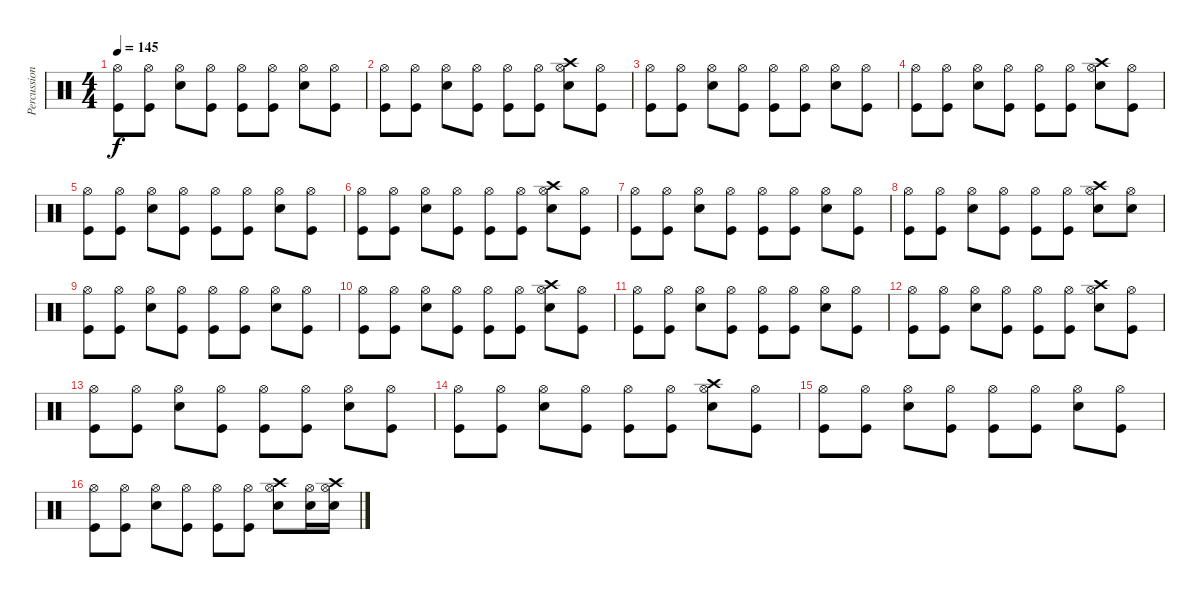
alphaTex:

\track ("Percussion" "Percussion") {instrument percussion}
\staff {score}
\articulation defaults
\ts (4 4)
\tempo 145
\clef neutral
\ks c
("Hi-Hat (open)" "Kick (hit)").8{dy f} ("Hi-Hat (open)" "Kick (hit)").8 ("Hi-Hat (open)" "Snare (hit) 2").8 ("Hi-Hat (open)" "Kick (hit)").8 ("Hi-Hat (open)" "Kick (hit)").8 ("Hi-Hat (open)" "Kick (hit)").8 ("Hi-Hat (open)" "Snare (hit) 2").8 ("Hi-Hat (open)" "Kick (hit)").8 |
("Hi-Hat (open)" "Kick (hit)").8 ("Hi-Hat (open)" "Kick (hit)").8 ("Hi-Hat (open)" "Snare (hit) 2").8 ("Hi-Hat (open)" "Kick (hit)").8 ("Hi-Hat (open)" "Kick (hit)").8 ("Hi-Hat (open)" "Kick (hit)").8 ("Hi-Hat (open)" "Snare (hit) 2" "Crash high (hit)").8 ("Hi-Hat (open)" "Kick (hit)").8 |
("Hi-Hat (open)" "Kick (hit)").8 ("Hi-Hat (open)" "Kick (hit)").8 ("Hi-Hat (open)" "Snare (hit) 2").8 ("Hi-Hat (open)" "Kick (hit)").8 ("Hi-Hat (open)" "Kick (hit)").8 ("Hi-Hat (open)" "Kick (hit)").8 ("Hi-Hat (open)" "Snare (hit) 2").8 ("Hi-Hat (open)" "Kick (hit)").8 |
("Hi-Hat (open)" "Kick (hit)").8 ("Hi-Hat (open)" "Kick (hit)").8 ("Hi-Hat (open)" "Snare (hit) 2").8 ("Hi-Hat (open)" "Kick (hit)").8 ("Hi-Hat (open)" "Kick (hit)").8 ("Hi-Hat (open)" "Kick (hit)").8 ("Hi-Hat (open)" "Snare (hit) 2" "Crash high (hit)").8 ("Hi-Hat (open)" "Kick (hit)").8 |
("Hi-Hat (open)" "Kick (hit)").8 ("Hi-Hat (open)" "Kick (hit)").8 ("Hi-Hat (open)" "Snare (hit) 2").8 ("Hi-Hat (open)" "Kick (hit)").8 ("Hi-Hat (open)" "Kick (hit)").8 ("Hi-Hat (open)" "Kick (hit)").8 ("Hi-Hat (open)" "Snare (hit) 2").8 ("Hi-Hat (open)" "Kick (hit)").8 |
("Hi-Hat (open)" "Kick (hit)").8 ("Hi-Hat (open)" "Kick (hit)").8 ("Hi-Hat (open)" "Snare (hit) 2").8 ("Hi-Hat (open)" "Kick (hit)").8 ("Hi-Hat (open)" "Kick (hit)").8 ("Hi-Hat (open)" "Kick (hit)").8 ("Hi-Hat (open)" "Snare (hit) 2" "Crash high (hit)").8 ("Hi-Hat (open)" "Kick (hit)").8 |
("Hi-Hat (open)" "Kick (hit)").8 ("Hi-Hat (open)" "Kick (hit)").8 ("Hi-Hat (open)" "Snare (hit) 2").8 ("Hi-Hat (open)" "Kick (hit)").8 ("Hi-Hat (open)" "Kick (hit)").8 ("Hi-Hat (open)" "Kick (hit)").8 ("Hi-Hat (open)" "Snare (hit) 2").8 ("Hi-Hat (open)" "Kick (hit)").8 |
("Hi-Hat (open)" "Kick (hit)").8 ("Hi-Hat (open)" "Kick (hit)").8 ("Hi-Hat (open)" "Snare (hit) 2").8 ("Hi-Hat (open)" "Kick (hit)").8 ("Hi-Hat (open)" "Kick (hit)").8 ("Hi-Hat (open)" "Kick (hit)").8 ("Hi-Hat (open)" "Snare (hit) 2" "Crash high (hit)").8 ("Hi-Hat (open)" "Snare (hit)").8 |
("Hi-Hat (open)" "Kick (hit)").8 ("Hi-Hat (open)" "Kick (hit)").8 ("Hi-Hat (open)" "Snare (hit) 2").8 ("Hi-Hat (open)" "Kick (hit)").8 ("Hi-Hat (open)" "Kick (hit)").8 ("Hi-Hat (open)" "Kick (hit)").8 ("Hi-Hat (open)" "Snare (hit) 2").8 ("Hi-Hat (open)" "Kick (hit)").8 |
("Hi-Hat (open)" "Kick (hit)").8 ("Hi-Hat (open)" "Kick (hit)").8 ("Hi-Hat (open)" "Snare (hit) 2").8 ("Hi-Hat (open)" "Kick (hit)").8 ("Hi-Hat (open)" "Kick (hit)").8 ("Hi-Hat (open)" "Kick (hit)").8 ("Hi-Hat (open)" "Snare (hit) 2" "Crash high (hit)").8 ("Hi-Hat (open)" "Kick (hit)").8 |
("Hi-Hat (open)" "Kick (hit)").8 ("Hi-Hat (open)" "Kick (hit)").8 ("Hi-Hat (open)" "Snare (hit) 2").8 ("Hi-Hat (open)" "Kick (hit)").8 ("Hi-Hat (open)" "Kick (hit)").8 ("Hi-Hat (open)" "Kick (hit)").8 ("Hi-Hat (open)" "Snare (hit) 2").8 ("Hi-Hat (open)" "Kick (hit)").8 |
("Hi-Hat (open)" "Kick (hit)").8 ("Hi-Hat (open)" "Kick (hit)").8 ("Hi-Hat (open)" "Snare (hit) 2").8 ("Hi-Hat (open)" "Kick (hit)").8 ("Hi-Hat (open)" "Kick (hit)").8 ("Hi-Hat (open)" "Kick (hit)").8 ("Hi-Hat (open)" "Snare (hit) 2" "Crash high (hit)").8 ("Hi-Hat (open)" "Kick (hit)").8 |
("Hi-Hat (open)" "Kick (hit)").8 ("Hi-Hat (open)" "Kick (hit)").8 ("Hi-Hat (open)" "Snare (hit) 2").8 ("Hi-Hat (open)" "Kick (hit)").8 ("Hi-Hat (open)" "Kick (hit)").8 ("Hi-Hat (open)" "Kick (hit)").8 ("Hi-Hat (open)" "Snare (hit) 2").8 ("Hi-Hat (open)" "Kick (hit)").8 |
("Hi-Hat (open)" "Kick (hit)").8 ("Hi-Hat (open)" "Kick (hit)").8 ("Hi-Hat (open)" "Snare (hit) 2").8 ("Hi-Hat (open)" "Kick (hit)").8 ("Hi-Hat (open)" "Kick (hit)").8 ("Hi-Hat (open)" "Kick (hit)").8 ("Hi-Hat (open)" "Snare (hit) 2" "Crash high (hit)").8 ("Hi-Hat (open)" "Kick (hit)").8 |
("Hi-Hat (open)" "Kick (hit)").8 ("Hi-Hat (open)" "Kick (hit)").8 ("Hi-Hat (open)" "Snare (hit) 2").8 ("Hi-Hat (open)" "Kick (hit)").8 ("Hi-Hat (open)" "Kick (hit)").8 ("Hi-Hat (open)" "Kick (hit)").8 ("Hi-Hat (open)" "Snare (hit) 2").8 ("Hi-Hat (open)" "Kick (hit)").8 |
("Hi-Hat (open)" "Kick (hit)").8 ("Hi-Hat (open)" "Kick (hit)").8 ("Hi-Hat (open)" "Snare (hit) 2").8 ("Hi-Hat (open)" "Kick (hit)").8 ("Hi-Hat (open)" "Kick (hit)").8 ("Hi-Hat (open)" "Kick (hit)").8 ("Hi-Hat (open)" "Snare (hit) 2" "Crash high (hit)").8 ("Hi-Hat (open)" "Snare (hit) 2").16 ("Hi-Hat (open)" "Snare (hit) 2" "Crash high (hit)").16
